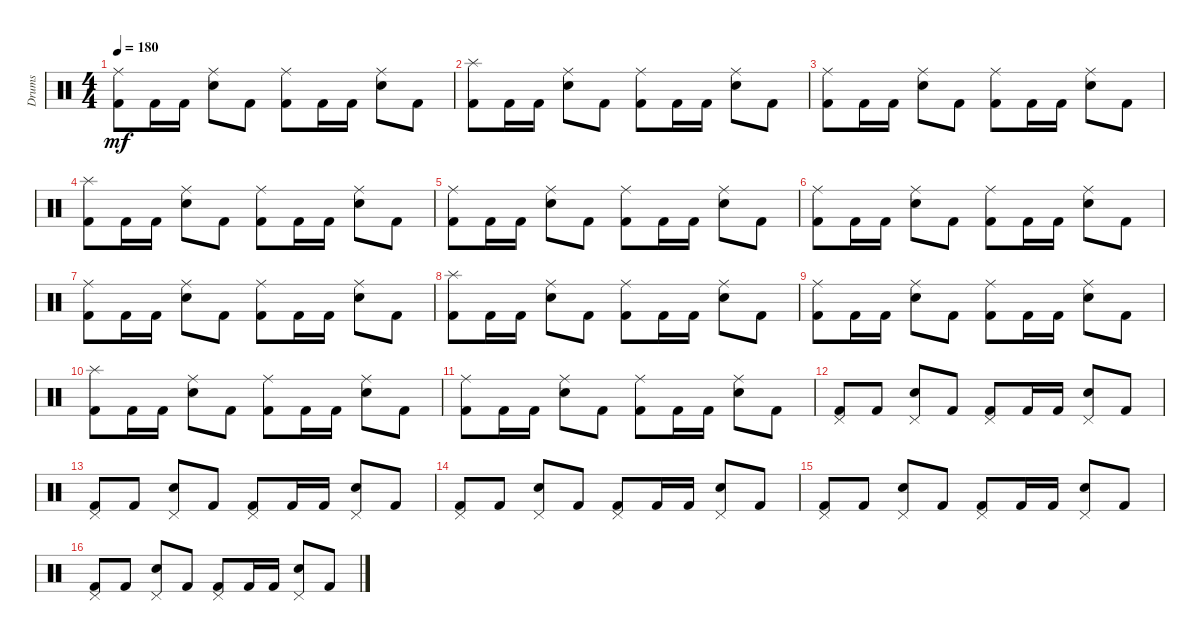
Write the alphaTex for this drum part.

\track ("Drums" "Drums") {instrument percussion}
\staff {score}
\articulation defaults
\ts (4 4)
\tempo 180
\clef neutral
\ks c
("Ride (middle)" "Kick (hit) 2").8{dy mf} "Kick (hit) 2".16 "Kick (hit) 2".16 ("Ride (middle)" "Snare (hit) 2").8 "Kick (hit) 2".8 ("Ride (middle)" "Kick (hit) 2").8 "Kick (hit) 2".16 "Kick (hit) 2".16 ("Ride (middle)" "Snare (hit) 2").8 "Kick (hit) 2".8 |
("Splash (hit)" "Kick (hit) 2").8 "Kick (hit) 2".16 "Kick (hit) 2".16 ("Ride (middle)" "Snare (hit) 2").8 "Kick (hit) 2".8 ("Ride (middle)" "Kick (hit) 2").8 "Kick (hit) 2".16 "Kick (hit) 2".16 ("Ride (middle)" "Snare (hit) 2").8 "Kick (hit) 2".8 |
("Ride (middle)" "Kick (hit) 2").8 "Kick (hit) 2".16 "Kick (hit) 2".16 ("Ride (middle)" "Snare (hit) 2").8 "Kick (hit) 2".8 ("Ride (middle)" "Kick (hit) 2").8 "Kick (hit) 2".16 "Kick (hit) 2".16 ("Ride (middle)" "Snare (hit) 2").8 "Kick (hit) 2".8 |
("Splash (hit)" "Kick (hit) 2").8 "Kick (hit) 2".16 "Kick (hit) 2".16 ("Ride (middle)" "Snare (hit) 2").8 "Kick (hit) 2".8 ("Ride (middle)" "Kick (hit) 2").8 "Kick (hit) 2".16 "Kick (hit) 2".16 ("Ride (middle)" "Snare (hit) 2").8 "Kick (hit) 2".8 |
("Ride (middle)" "Kick (hit) 2").8 "Kick (hit) 2".16 "Kick (hit) 2".16 ("Ride (middle)" "Snare (hit) 2").8 "Kick (hit) 2".8 ("Ride (middle)" "Kick (hit) 2").8 "Kick (hit) 2".16 "Kick (hit) 2".16 ("Ride (middle)" "Snare (hit) 2").8 "Kick (hit) 2".8 |
("Ride (middle)" "Kick (hit) 2").8 "Kick (hit) 2".16 "Kick (hit) 2".16 ("Ride (middle)" "Snare (hit) 2").8 "Kick (hit) 2".8 ("Ride (middle)" "Kick (hit) 2").8 "Kick (hit) 2".16 "Kick (hit) 2".16 ("Ride (middle)" "Snare (hit) 2").8 "Kick (hit) 2".8 |
("Ride (middle)" "Kick (hit) 2").8 "Kick (hit) 2".16 "Kick (hit) 2".16 ("Ride (middle)" "Snare (hit) 2").8 "Kick (hit) 2".8 ("Ride (middle)" "Kick (hit) 2").8 "Kick (hit) 2".16 "Kick (hit) 2".16 ("Ride (middle)" "Snare (hit) 2").8 "Kick (hit) 2".8 |
("Splash (hit)" "Kick (hit) 2").8 "Kick (hit) 2".16 "Kick (hit) 2".16 ("Ride (middle)" "Snare (hit) 2").8 "Kick (hit) 2".8 ("Ride (middle)" "Kick (hit) 2").8 "Kick (hit) 2".16 "Kick (hit) 2".16 ("Ride (middle)" "Snare (hit) 2").8 "Kick (hit) 2".8 |
("Ride (middle)" "Kick (hit) 2").8 "Kick (hit) 2".16 "Kick (hit) 2".16 ("Ride (middle)" "Snare (hit) 2").8 "Kick (hit) 2".8 ("Ride (middle)" "Kick (hit) 2").8 "Kick (hit) 2".16 "Kick (hit) 2".16 ("Ride (middle)" "Snare (hit) 2").8 "Kick (hit) 2".8 |
("Splash (hit)" "Kick (hit) 2").8 "Kick (hit) 2".16 "Kick (hit) 2".16 ("Ride (middle)" "Snare (hit) 2").8 "Kick (hit) 2".8 ("Ride (middle)" "Kick (hit) 2").8 "Kick (hit) 2".16 "Kick (hit) 2".16 ("Ride (middle)" "Snare (hit) 2").8 "Kick (hit) 2".8 |
("Ride (middle)" "Kick (hit) 2").8 "Kick (hit) 2".16 "Kick (hit) 2".16 ("Ride (middle)" "Snare (hit) 2").8 "Kick (hit) 2".8 ("Ride (middle)" "Kick (hit) 2").8 "Kick (hit) 2".16 "Kick (hit) 2".16 ("Ride (middle)" "Snare (hit) 2").8 "Kick (hit) 2".8 |
("Pedal Hi-Hat (hit)" "Kick (hit) 2").8 "Kick (hit) 2".8 ("Pedal Hi-Hat (hit)" "Snare (hit) 2").8 "Kick (hit) 2".8 ("Pedal Hi-Hat (hit)" "Kick (hit) 2").8 "Kick (hit) 2".16 "Kick (hit) 2".16 ("Pedal Hi-Hat (hit)" "Snare (hit) 2").8 "Kick (hit) 2".8 |
("Pedal Hi-Hat (hit)" "Kick (hit) 2").8 "Kick (hit) 2".8 ("Pedal Hi-Hat (hit)" "Snare (hit) 2").8 "Kick (hit) 2".8 ("Pedal Hi-Hat (hit)" "Kick (hit) 2").8 "Kick (hit) 2".16 "Kick (hit) 2".16 ("Pedal Hi-Hat (hit)" "Snare (hit) 2").8 "Kick (hit) 2".8 |
("Pedal Hi-Hat (hit)" "Kick (hit) 2").8 "Kick (hit) 2".8 ("Pedal Hi-Hat (hit)" "Snare (hit) 2").8 "Kick (hit) 2".8 ("Pedal Hi-Hat (hit)" "Kick (hit) 2").8 "Kick (hit) 2".16 "Kick (hit) 2".16 ("Pedal Hi-Hat (hit)" "Snare (hit) 2").8 "Kick (hit) 2".8 |
("Pedal Hi-Hat (hit)" "Kick (hit) 2").8 "Kick (hit) 2".8 ("Pedal Hi-Hat (hit)" "Snare (hit) 2").8 "Kick (hit) 2".8 ("Pedal Hi-Hat (hit)" "Kick (hit) 2").8 "Kick (hit) 2".16 "Kick (hit) 2".16 ("Pedal Hi-Hat (hit)" "Snare (hit) 2").8 "Kick (hit) 2".8 |
("Pedal Hi-Hat (hit)" "Kick (hit) 2").8 "Kick (hit) 2".8 ("Pedal Hi-Hat (hit)" "Snare (hit) 2").8 "Kick (hit) 2".8 ("Pedal Hi-Hat (hit)" "Kick (hit) 2").8 "Kick (hit) 2".16 "Kick (hit) 2".16 ("Pedal Hi-Hat (hit)" "Snare (hit) 2").8 "Kick (hit) 2".8
